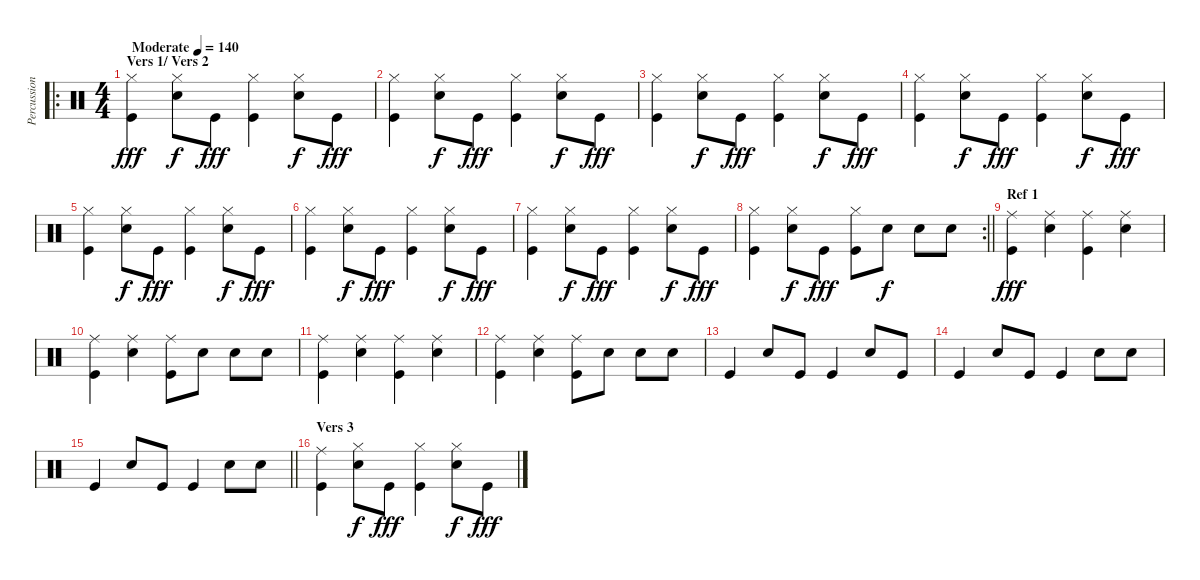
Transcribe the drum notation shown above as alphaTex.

\track ("Percussion" "Percussion") {instrument percussion}
\staff {score}
\articulation defaults
\ro
\ts (4 4)
\section ("" "Vers 1/ Vers 2")
\tempo (140 "Moderate")
\clef neutral
\ks c
("Hi-Hat (closed)" "Kick (hit)").4{dy fff} ("Hi-Hat (closed)" "Snare (hit) 2").8{dy f} "Kick (hit)".8{dy fff} ("Hi-Hat (closed)" "Kick (hit)").4 ("Hi-Hat (closed)" "Snare (hit) 2").8{dy f} "Kick (hit)".8{dy fff} |
("Hi-Hat (closed)" "Kick (hit)").4 ("Hi-Hat (closed)" "Snare (hit) 2").8{dy f} "Kick (hit)".8{dy fff} ("Hi-Hat (closed)" "Kick (hit)").4 ("Hi-Hat (closed)" "Snare (hit) 2").8{dy f} "Kick (hit)".8{dy fff} |
("Hi-Hat (closed)" "Kick (hit)").4 ("Hi-Hat (closed)" "Snare (hit) 2").8{dy f} "Kick (hit)".8{dy fff} ("Hi-Hat (closed)" "Kick (hit)").4 ("Hi-Hat (closed)" "Snare (hit) 2").8{dy f} "Kick (hit)".8{dy fff} |
("Hi-Hat (closed)" "Kick (hit)").4 ("Hi-Hat (closed)" "Snare (hit) 2").8{dy f} "Kick (hit)".8{dy fff} ("Hi-Hat (closed)" "Kick (hit)").4 ("Hi-Hat (closed)" "Snare (hit) 2").8{dy f} "Kick (hit)".8{dy fff} |
("Hi-Hat (closed)" "Kick (hit)").4 ("Hi-Hat (closed)" "Snare (hit) 2").8{dy f} "Kick (hit)".8{dy fff} ("Hi-Hat (closed)" "Kick (hit)").4 ("Hi-Hat (closed)" "Snare (hit) 2").8{dy f} "Kick (hit)".8{dy fff} |
("Hi-Hat (closed)" "Kick (hit)").4 ("Hi-Hat (closed)" "Snare (hit) 2").8{dy f} "Kick (hit)".8{dy fff} ("Hi-Hat (closed)" "Kick (hit)").4 ("Hi-Hat (closed)" "Snare (hit) 2").8{dy f} "Kick (hit)".8{dy fff} |
("Hi-Hat (closed)" "Kick (hit)").4 ("Hi-Hat (closed)" "Snare (hit) 2").8{dy f} "Kick (hit)".8{dy fff} ("Hi-Hat (closed)" "Kick (hit)").4 ("Hi-Hat (closed)" "Snare (hit) 2").8{dy f} "Kick (hit)".8{dy fff} |
\rc 2
\barLineRight lightlight
("Hi-Hat (closed)" "Kick (hit)").4 ("Hi-Hat (closed)" "Snare (hit) 2").8{dy f} "Kick (hit)".8{dy fff} ("Hi-Hat (closed)" "Kick (hit)").8 "Snare (hit) 2".8{dy f} "Snare (hit) 2".8 "Snare (hit) 2".8 |
\section ("" "Ref 1")
("Ride (middle)" "Kick (hit)").4{dy fff} ("Ride (middle)" "Snare (hit) 2").4 ("Ride (middle)" "Kick (hit)").4 ("Ride (middle)" "Snare (hit) 2").4 |
("Ride (middle)" "Kick (hit)").4 ("Ride (middle)" "Snare (hit) 2").4 ("Ride (middle)" "Kick (hit)").8 "Snare (hit) 2".8 "Snare (hit) 2".8 "Snare (hit) 2".8 |
("Ride (middle)" "Kick (hit)").4 ("Ride (middle)" "Snare (hit) 2").4 ("Ride (middle)" "Kick (hit)").4 ("Ride (middle)" "Snare (hit) 2").4 |
("Ride (middle)" "Kick (hit)").4 ("Ride (middle)" "Snare (hit) 2").4 ("Ride (middle)" "Kick (hit)").8 "Snare (hit) 2".8 "Snare (hit) 2".8 "Snare (hit) 2".8 |
"Kick (hit)".4 "Snare (hit) 2".8 "Kick (hit)".8 "Kick (hit)".4 "Snare (hit) 2".8 "Kick (hit)".8 |
"Kick (hit)".4 "Snare (hit) 2".8 "Kick (hit)".8 "Kick (hit)".4 "Snare (hit) 2".8 "Snare (hit) 2".8 |
\barLineRight lightlight "Kick (hit)".4 "Snare (hit) 2".8 "Kick (hit)".8 "Kick (hit)".4 "Snare (hit) 2".8 "Snare (hit) 2".8
|
\section ("" "Vers 3")
("Ride (middle)" "Kick (hit)").4 ("Hi-Hat (closed)" "Snare (hit) 2").8{dy f} "Kick (hit)".8{dy fff} ("Hi-Hat (closed)" "Kick (hit)").4 ("Hi-Hat (closed)" "Snare (hit) 2").8{dy f} "Kick (hit)".8{dy fff}
